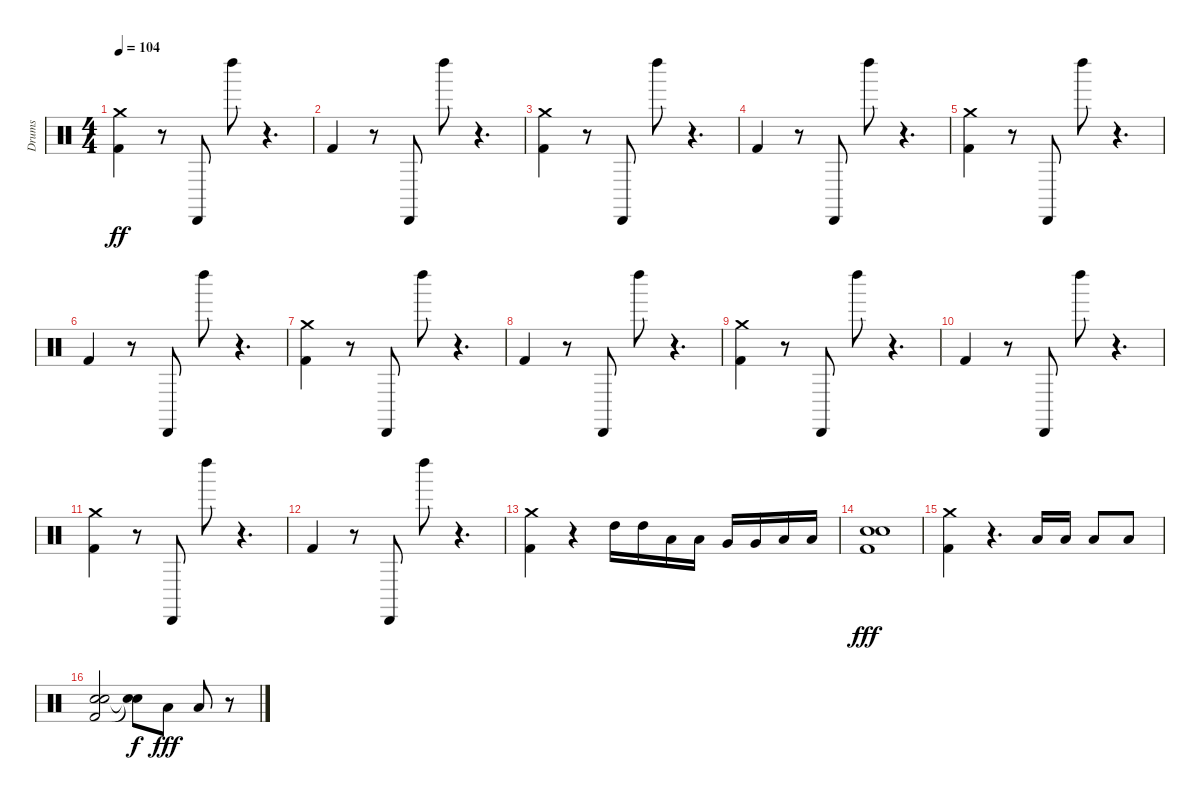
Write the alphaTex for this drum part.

\track ("Drums" "Drums") {instrument percussion}
\staff {score}
\articulation defaults
\ts (4 4)
\tempo 104
\clef neutral
\ks c
("Crash medium (hit)" "Kick (hit) 2").4{dy ff} r.8 "Cabasa (hit)".8 "Left Maraca (hit)".8 r.4{d} |
"Kick (hit) 2".4 r.8 "Cabasa (hit)".8 "Left Maraca (hit)".8 r.4{d} |
("Crash medium (hit)" "Kick (hit) 2").4 r.8 "Cabasa (hit)".8 "Left Maraca (hit)".8 r.4{d} |
"Kick (hit) 2".4 r.8 "Cabasa (hit)".8 "Left Maraca (hit)".8 r.4{d} |
("Crash medium (hit)" "Kick (hit) 2").4 r.8 "Cabasa (hit)".8 "Left Maraca (hit)".8 r.4{d} |
"Kick (hit) 2".4 r.8 "Cabasa (hit)".8 "Left Maraca (hit)".8 r.4{d} |
("Crash medium (hit)" "Kick (hit) 2").4 r.8 "Cabasa (hit)".8 "Left Maraca (hit)".8 r.4{d} |
"Kick (hit) 2".4 r.8 "Cabasa (hit)".8 "Left Maraca (hit)".8 r.4{d} |
("Crash medium (hit)" "Kick (hit) 2").4 r.8 "Cabasa (hit)".8 "Left Maraca (hit)".8 r.4{d} |
"Kick (hit) 2".4 r.8 "Cabasa (hit)".8 "Left Maraca (hit)".8 r.4{d} |
("Crash medium (hit)" "Kick (hit) 2").4 r.8 "Cabasa (hit)".8 "Left Maraca (hit)".8 r.4{d} |
"Kick (hit) 2".4 r.8 "Cabasa (hit)".8 "Left Maraca (hit)".8 r.4{d} |
("Crash medium (hit)" "Kick (hit) 2").4 r.4 "High Tom (hit)".16 "High Tom (hit)".16 "Low Tom (hit)".16 "Low Tom (hit)".16 "Very Low Tom (hit)".16 "Very Low Tom (hit)".16 "Low Floor Tom (hit)".16 "Low Floor Tom (hit)".16 |
("Electric Snare (hit)" "Kick (hit) 2" "Electric Snare (hit)").1{dy fff} |
("Crash medium (hit)" "Kick (hit) 2").4 r.4{d} "Low Tom (hit)".16 "Low Tom (hit)".16 "Low Tom (hit)".8 "Low Tom (hit)".8 |
("Electric Snare (hit)" "Kick (hit) 2" "Electric Snare (hit)").2 ("Snare (hit)"{t} "Snare (hit)"{t}).8{dy f} "Low Floor Tom (hit)".8{dy fff} "Low Floor Tom (hit)".8 r.8
